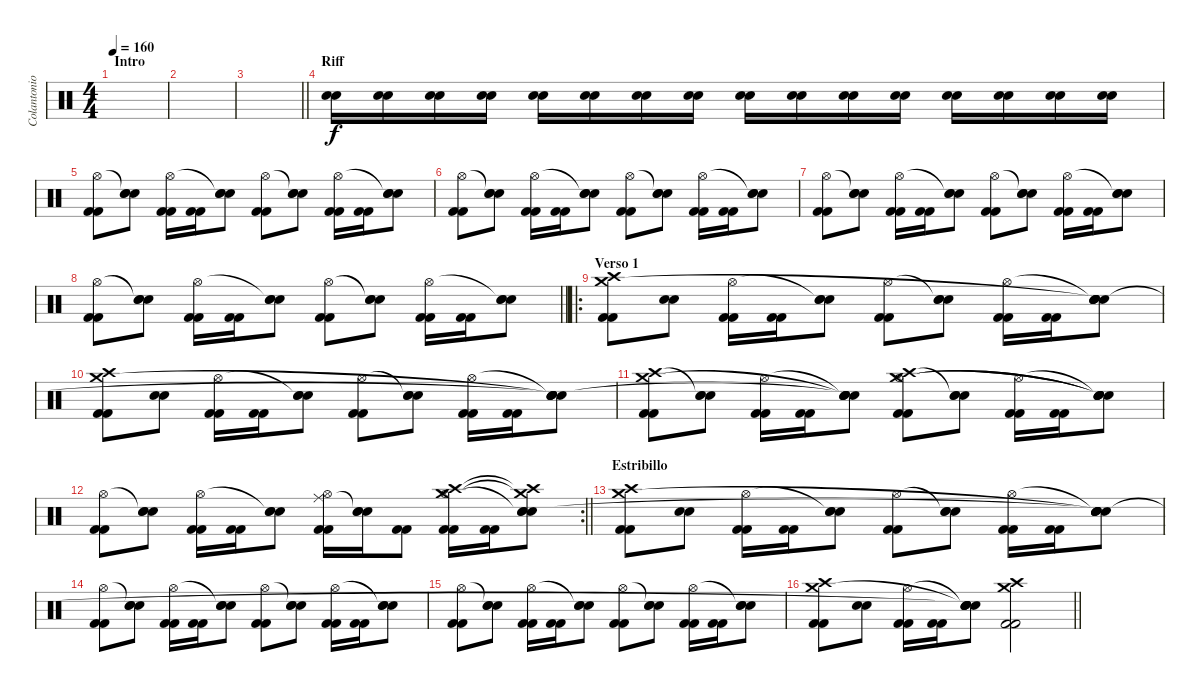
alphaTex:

\track ("Colantonio (Bateria)" "Colantonio") {instrument percussion}
\staff {score}
\articulation defaults
\ts (4 4)
\section ("" "Intro")
\tempo 160
\clef neutral
\ks c
|
|
\barLineRight lightlight
|
\section ("" "Riff")
("Snare (hit) 2" "Snare (hit) 2").16 ("Snare (hit) 2" "Snare (hit) 2").16 ("Snare (hit) 2" "Snare (hit) 2").16 ("Snare (hit) 2" "Snare (hit) 2").16 ("Snare (hit) 2" "Snare (hit) 2").16 ("Snare (hit) 2" "Snare (hit) 2").16 ("Snare (hit) 2" "Snare (hit) 2").16 ("Snare (hit) 2" "Snare (hit) 2").16 ("Snare (hit) 2" "Snare (hit) 2").16 ("Snare (hit) 2" "Snare (hit) 2").16 ("Snare (hit) 2" "Snare (hit) 2").16 ("Snare (hit) 2" "Snare (hit) 2").16 ("Snare (hit) 2" "Snare (hit) 2").16 ("Snare (hit) 2" "Snare (hit) 2").16 ("Snare (hit) 2" "Snare (hit) 2").16 ("Snare (hit) 2" "Snare (hit) 2").16 |
("Kick (hit) 2" "Kick (hit) 2" "Hi-Hat (open)").8 ("Snare (hit) 2" "Snare (hit) 2" "Snare (hit)"{t}).8 ("Kick (hit) 2" "Kick (hit) 2" "Hi-Hat (open)").16 ("Kick (hit) 2" "Kick (hit) 2").16 ("Snare (hit) 2" "Snare (hit) 2" "Snare (hit)"{t}).8 ("Kick (hit) 2" "Kick (hit) 2" "Hi-Hat (open)").8 ("Snare (hit) 2" "Snare (hit) 2" "Snare (hit)"{t}).8 ("Kick (hit) 2" "Kick (hit) 2" "Hi-Hat (open)").16 ("Kick (hit) 2" "Kick (hit) 2").16 ("Snare (hit) 2" "Snare (hit) 2" "Snare (hit)"{t}).8 |
("Kick (hit) 2" "Kick (hit) 2" "Hi-Hat (open)").8 ("Snare (hit) 2" "Snare (hit) 2" "Snare (hit)"{t}).8 ("Kick (hit) 2" "Kick (hit) 2" "Hi-Hat (open)").16 ("Kick (hit) 2" "Kick (hit) 2").16 ("Snare (hit) 2" "Snare (hit) 2" "Snare (hit)"{t}).8 ("Kick (hit) 2" "Kick (hit) 2" "Hi-Hat (open)").8 ("Snare (hit) 2" "Snare (hit) 2" "Snare (hit)"{t}).8 ("Kick (hit) 2" "Kick (hit) 2" "Hi-Hat (open)").16 ("Kick (hit) 2" "Kick (hit) 2").16 ("Snare (hit) 2" "Snare (hit) 2" "Snare (hit)"{t}).8 |
("Kick (hit) 2" "Kick (hit) 2" "Hi-Hat (open)").8 ("Snare (hit) 2" "Snare (hit) 2" "Snare (hit)"{t}).8 ("Kick (hit) 2" "Kick (hit) 2" "Hi-Hat (open)").16 ("Kick (hit) 2" "Kick (hit) 2").16 ("Snare (hit) 2" "Snare (hit) 2" "Snare (hit)"{t}).8 ("Kick (hit) 2" "Kick (hit) 2" "Hi-Hat (open)").8 ("Snare (hit) 2" "Snare (hit) 2" "Snare (hit)"{t}).8 ("Kick (hit) 2" "Kick (hit) 2" "Hi-Hat (open)").16 ("Kick (hit) 2" "Kick (hit) 2").16 ("Snare (hit) 2" "Snare (hit) 2" "Snare (hit)"{t}).8 |
\barLineRight lightlight
("Kick (hit) 2" "Kick (hit) 2" "Hi-Hat (open)").8 ("Snare (hit) 2" "Snare (hit) 2" "Snare (hit)"{t}).8 ("Kick (hit) 2" "Kick (hit) 2" "Hi-Hat (open)").16 ("Kick (hit) 2" "Kick (hit) 2").16 ("Snare (hit) 2" "Snare (hit) 2" "Snare (hit)"{t}).8 ("Kick (hit) 2" "Kick (hit) 2" "Hi-Hat (open)").8 ("Snare (hit) 2" "Snare (hit) 2" "Snare (hit)"{t}).8 ("Kick (hit) 2" "Kick (hit) 2" "Hi-Hat (open)").16 ("Kick (hit) 2" "Kick (hit) 2").16 ("Snare (hit) 2" "Snare (hit) 2" "Snare (hit)"{t}).8 |
\ro
\section ("" "Verso 1")
("Kick (hit) 2" "Kick (hit) 2" "Crash high (hit)" "Crash medium (hit)").8 ("Snare (hit) 2" "Snare (hit) 2").8 ("Kick (hit) 2" "Kick (hit) 2" "Hi-Hat (open)").16 ("Kick (hit) 2" "Kick (hit) 2").16 ("Snare (hit) 2" "Snare (hit) 2" "Snare (hit)"{t}).8 ("Kick (hit) 2" "Kick (hit) 2" "Hi-Hat (open)").8 ("Snare (hit) 2" "Snare (hit) 2" "Snare (hit)"{t}).8 ("Kick (hit) 2" "Kick (hit) 2" "Hi-Hat (open)").16 ("Kick (hit) 2" "Kick (hit) 2").16 ("Snare (hit) 2" "Snare (hit) 2" "Snare (hit)"{t} "Snare (hit)"{t} "Snare (hit)").8 |
("Kick (hit) 2" "Kick (hit) 2" "Crash high (hit)" "Crash medium (hit)").8 ("Snare (hit) 2" "Snare (hit) 2").8 ("Kick (hit) 2" "Kick (hit) 2" "Hi-Hat (open)").16 ("Kick (hit) 2" "Kick (hit) 2").16 ("Snare (hit) 2" "Snare (hit) 2" "Snare (hit)"{t}).8 ("Kick (hit) 2" "Kick (hit) 2" "Hi-Hat (open)").8 ("Snare (hit) 2" "Snare (hit) 2" "Snare (hit)"{t}).8 ("Kick (hit) 2" "Kick (hit) 2" "Hi-Hat (open)").16 ("Kick (hit) 2" "Kick (hit) 2").16 ("Snare (hit) 2" "Snare (hit) 2" "Snare (hit)"{t} "Snare (hit)"{t} "Snare (hit)"{t}).8 |
("Kick (hit) 2" "Kick (hit) 2" "Crash high (hit)" "Crash medium (hit)").8 ("Snare (hit) 2" "Snare (hit) 2" "Snare (hit)"{t}).8 ("Kick (hit) 2" "Kick (hit) 2" "Hi-Hat (open)").16 ("Kick (hit) 2" "Kick (hit) 2").16 ("Snare (hit) 2" "Snare (hit) 2" "Snare (hit)"{t} "Snare (hit)"{t} "Snare (hit)"{t}).8 ("Kick (hit) 2" "Kick (hit) 2" "Crash high (hit)" "Hi-Hat (open)" "Crash medium (hit)").8 ("Snare (hit) 2" "Snare (hit) 2" "Snare (hit)"{t}).8 ("Kick (hit) 2" "Kick (hit) 2" "Hi-Hat (open)").16 ("Kick (hit) 2" "Kick (hit) 2").16 ("Snare (hit) 2" "Snare (hit) 2" "Snare (hit)"{t} "Snare (hit)"{t} "Snare (hit)"{t}).8 |
\rc 2
\barLineRight lightlight
("Kick (hit) 2" "Kick (hit) 2" "Hi-Hat (open)").8 ("Snare (hit) 2" "Snare (hit) 2" "Snare (hit)"{t}).8 ("Kick (hit) 2" "Kick (hit) 2" "Hi-Hat (open)").16 ("Kick (hit) 2" "Kick (hit) 2").16 ("Snare (hit) 2" "Snare (hit) 2" "Snare (hit)"{t}).8 ("Kick (hit) 2" "Kick (hit) 2" "Ride (middle)" "Hi-Hat (open)").16 ("Snare (hit) 2" "Snare (hit) 2" "Snare (hit)"{t}).16 ("Kick (hit) 2" "Kick (hit) 2").8 ("Kick (hit) 2" "Kick (hit) 2" "Crash medium (hit)" "Crash high (hit)" "Hi-Hat (open)").16 ("Kick (hit) 2" "Kick (hit) 2").16 ("Snare (hit) 2" "Snare (hit) 2" "Crash medium (hit)"{t} "Crash high (hit)"{t} "Snare (hit)"{t}).8 |
\section ("" "Estribillo")
("Kick (hit) 2" "Kick (hit) 2" "Crash high (hit)" "Crash medium (hit)").8 ("Snare (hit) 2" "Snare (hit) 2").8 ("Kick (hit) 2" "Kick (hit) 2" "Hi-Hat (open)").16 ("Kick (hit) 2" "Kick (hit) 2").16 ("Snare (hit) 2" "Snare (hit) 2" "Snare (hit)"{t}).8 ("Kick (hit) 2" "Kick (hit) 2" "Hi-Hat (open)").8 ("Snare (hit) 2" "Snare (hit) 2" "Snare (hit)"{t}).8 ("Kick (hit) 2" "Kick (hit) 2" "Hi-Hat (open)").16 ("Kick (hit) 2" "Kick (hit) 2").16 ("Snare (hit) 2" "Snare (hit) 2" "Snare (hit)"{t} "Snare (hit)"{t} "Snare (hit)"{t}).8 |
("Kick (hit) 2" "Kick (hit) 2" "Hi-Hat (open)").8 ("Snare (hit) 2" "Snare (hit) 2" "Snare (hit)"{t}).8 ("Kick (hit) 2" "Kick (hit) 2" "Hi-Hat (open)").16 ("Kick (hit) 2" "Kick (hit) 2").16 ("Snare (hit) 2" "Snare (hit) 2" "Snare (hit)"{t}).8 ("Kick (hit) 2" "Kick (hit) 2" "Hi-Hat (open)").8 ("Snare (hit) 2" "Snare (hit) 2" "Snare (hit)"{t}).8 ("Kick (hit) 2" "Kick (hit) 2" "Hi-Hat (open)").16 ("Kick (hit) 2" "Kick (hit) 2").16 ("Snare (hit) 2" "Snare (hit) 2" "Snare (hit)"{t}).8 |
("Kick (hit) 2" "Kick (hit) 2" "Hi-Hat (open)").8 ("Snare (hit) 2" "Snare (hit) 2" "Snare (hit)"{t}).8 ("Kick (hit) 2" "Kick (hit) 2" "Hi-Hat (open)").16 ("Kick (hit) 2" "Kick (hit) 2").16 ("Snare (hit) 2" "Snare (hit) 2" "Snare (hit)"{t}).8 ("Kick (hit) 2" "Kick (hit) 2" "Hi-Hat (open)").8 ("Snare (hit) 2" "Snare (hit) 2" "Snare (hit)"{t}).8 ("Kick (hit) 2" "Kick (hit) 2" "Hi-Hat (open)").16 ("Kick (hit) 2" "Kick (hit) 2").16 ("Snare (hit) 2" "Snare (hit) 2" "Snare (hit)"{t}).8 |
\barLineRight lightlight
("Kick (hit) 2" "Kick (hit) 2" "Crash high (hit)" "Crash medium (hit)").8 ("Snare (hit) 2" "Snare (hit) 2").8 ("Kick (hit) 2" "Kick (hit) 2" "Hi-Hat (open)").16 ("Kick (hit) 2" "Kick (hit) 2").16 ("Snare (hit) 2" "Snare (hit) 2" "Snare (hit)"{t} "Snare (hit)"{t} "Snare (hit)"{t}).8 ("Kick (hit) 2" "Kick (hit) 2" "Crash high (hit)" "Crash medium (hit)").2
